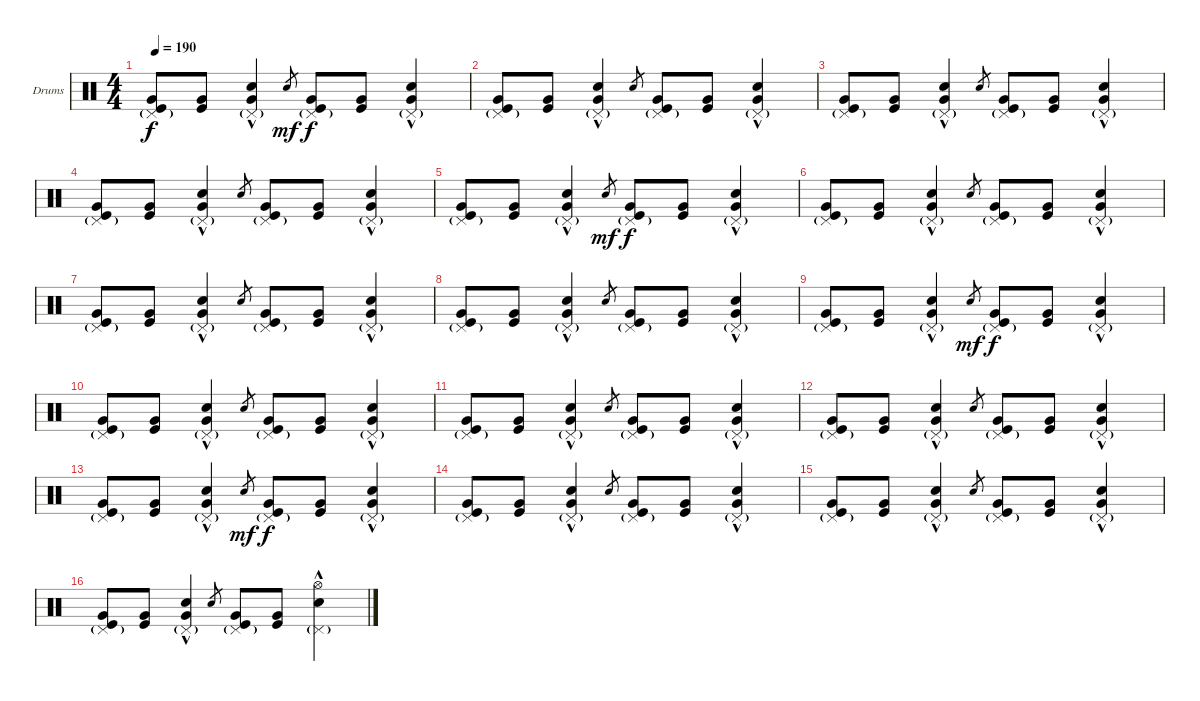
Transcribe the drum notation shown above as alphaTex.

\bracketExtendMode groupsimilarinstruments
\firstSystemTrackNameOrientation horizontal
\otherSystemsTrackNameOrientation horizontal
\track ("Drumkit" "Drums") {instrument percussion}
\staff {score}
\articulation defaults
\ts (4 4)
\tempo 190
\clef neutral
\scale
0.333333
\ks c
("Kick (hit)" "Very Low Tom (hit)" "Pedal Hi-Hat (hit)"{g}).8{dy f} ("Kick (hit)" "Very Low Tom (hit)").8 ("Snare (hit) 2"{hac} "Very Low Tom (hit)" "Pedal Hi-Hat (hit)"{g}).4 "Snare (hit) 2".8{gr dy mf} ("Kick (hit)" "Very Low Tom (hit)" "Pedal Hi-Hat (hit)"{g}).8{dy f} ("Kick (hit)" "Very Low Tom (hit)").8 ("Snare (hit) 2"{hac} "Very Low Tom (hit)" "Pedal Hi-Hat (hit)"{g}).4 |
\scale
0.333333 ("Kick (hit)" "Very Low Tom (hit)" "Pedal Hi-Hat (hit)"{g}).8 ("Kick (hit)" "Very Low Tom (hit)").8 ("Snare (hit) 2"{hac} "Very Low Tom (hit)" "Pedal Hi-Hat (hit)"{g}).4 "Snare (hit) 2".8{gr} ("Kick (hit)" "Very Low Tom (hit)" "Pedal Hi-Hat (hit)"{g}).8 ("Kick (hit)" "Very Low Tom (hit)").8 ("Snare (hit) 2"{hac} "Very Low Tom (hit)" "Pedal Hi-Hat (hit)"{g}).4 |
\scale
0.333333 ("Kick (hit)" "Very Low Tom (hit)" "Pedal Hi-Hat (hit)"{g}).8 ("Kick (hit)" "Very Low Tom (hit)").8 ("Snare (hit) 2"{hac} "Very Low Tom (hit)" "Pedal Hi-Hat (hit)"{g}).4 "Snare (hit) 2".8{gr} ("Kick (hit)" "Very Low Tom (hit)" "Pedal Hi-Hat (hit)"{g}).8 ("Kick (hit)" "Very Low Tom (hit)").8 ("Snare (hit) 2"{hac} "Very Low Tom (hit)" "Pedal Hi-Hat (hit)"{g}).4 |
\scale
0.333333 ("Kick (hit)" "Very Low Tom (hit)" "Pedal Hi-Hat (hit)"{g}).8 ("Kick (hit)" "Very Low Tom (hit)").8 ("Snare (hit) 2"{hac} "Very Low Tom (hit)" "Pedal Hi-Hat (hit)"{g}).4 "Snare (hit) 2".8{gr} ("Kick (hit)" "Very Low Tom (hit)" "Pedal Hi-Hat (hit)"{g}).8 ("Kick (hit)" "Very Low Tom (hit)").8 ("Snare (hit) 2"{hac} "Very Low Tom (hit)" "Pedal Hi-Hat (hit)"{g}).4 |
\scale
0.333333 ("Kick (hit)" "Very Low Tom (hit)" "Pedal Hi-Hat (hit)"{g}).8 ("Kick (hit)" "Very Low Tom (hit)").8 ("Snare (hit) 2"{hac} "Very Low Tom (hit)" "Pedal Hi-Hat (hit)"{g}).4 "Snare (hit) 2".8{gr dy mf} ("Kick (hit)" "Very Low Tom (hit)" "Pedal Hi-Hat (hit)"{g}).8{dy f} ("Kick (hit)" "Very Low Tom (hit)").8 ("Snare (hit) 2"{hac} "Very Low Tom (hit)" "Pedal Hi-Hat (hit)"{g}).4 |
\scale
0.333333 ("Kick (hit)" "Very Low Tom (hit)" "Pedal Hi-Hat (hit)"{g}).8 ("Kick (hit)" "Very Low Tom (hit)").8 ("Snare (hit) 2"{hac} "Very Low Tom (hit)" "Pedal Hi-Hat (hit)"{g}).4 "Snare (hit) 2".8{gr} ("Kick (hit)" "Very Low Tom (hit)" "Pedal Hi-Hat (hit)"{g}).8 ("Kick (hit)" "Very Low Tom (hit)").8 ("Snare (hit) 2"{hac} "Very Low Tom (hit)" "Pedal Hi-Hat (hit)"{g}).4 |
\scale
0.333333 ("Kick (hit)" "Very Low Tom (hit)" "Pedal Hi-Hat (hit)"{g}).8 ("Kick (hit)" "Very Low Tom (hit)").8 ("Snare (hit) 2"{hac} "Very Low Tom (hit)" "Pedal Hi-Hat (hit)"{g}).4 "Snare (hit) 2".8{gr} ("Kick (hit)" "Very Low Tom (hit)" "Pedal Hi-Hat (hit)"{g}).8 ("Kick (hit)" "Very Low Tom (hit)").8 ("Snare (hit) 2"{hac} "Very Low Tom (hit)" "Pedal Hi-Hat (hit)"{g}).4 |
\scale
0.333333 ("Kick (hit)" "Very Low Tom (hit)" "Pedal Hi-Hat (hit)"{g}).8 ("Kick (hit)" "Very Low Tom (hit)").8 ("Snare (hit) 2"{hac} "Very Low Tom (hit)" "Pedal Hi-Hat (hit)"{g}).4 "Snare (hit) 2".8{gr} ("Kick (hit)" "Very Low Tom (hit)" "Pedal Hi-Hat (hit)"{g}).8 ("Kick (hit)" "Very Low Tom (hit)").8 ("Snare (hit) 2"{hac} "Very Low Tom (hit)" "Pedal Hi-Hat (hit)"{g}).4 |
\scale
0.333333 ("Kick (hit)" "Very Low Tom (hit)" "Pedal Hi-Hat (hit)"{g}).8 ("Kick (hit)" "Very Low Tom (hit)").8 ("Snare (hit) 2"{hac} "Very Low Tom (hit)" "Pedal Hi-Hat (hit)"{g}).4 "Snare (hit) 2".8{gr dy mf} ("Kick (hit)" "Very Low Tom (hit)" "Pedal Hi-Hat (hit)"{g}).8{dy f} ("Kick (hit)" "Very Low Tom (hit)").8 ("Snare (hit) 2"{hac} "Very Low Tom (hit)" "Pedal Hi-Hat (hit)"{g}).4 |
\scale
0.333333 ("Kick (hit)" "Very Low Tom (hit)" "Pedal Hi-Hat (hit)"{g}).8 ("Kick (hit)" "Very Low Tom (hit)").8 ("Snare (hit) 2"{hac} "Very Low Tom (hit)" "Pedal Hi-Hat (hit)"{g}).4 "Snare (hit) 2".8{gr} ("Kick (hit)" "Very Low Tom (hit)" "Pedal Hi-Hat (hit)"{g}).8 ("Kick (hit)" "Very Low Tom (hit)").8 ("Snare (hit) 2"{hac} "Very Low Tom (hit)" "Pedal Hi-Hat (hit)"{g}).4 |
\scale
0.333333 ("Kick (hit)" "Very Low Tom (hit)" "Pedal Hi-Hat (hit)"{g}).8 ("Kick (hit)" "Very Low Tom (hit)").8 ("Snare (hit) 2"{hac} "Very Low Tom (hit)" "Pedal Hi-Hat (hit)"{g}).4 "Snare (hit) 2".8{gr} ("Kick (hit)" "Very Low Tom (hit)" "Pedal Hi-Hat (hit)"{g}).8 ("Kick (hit)" "Very Low Tom (hit)").8 ("Snare (hit) 2"{hac} "Very Low Tom (hit)" "Pedal Hi-Hat (hit)"{g}).4 |
\scale
0.333333 ("Kick (hit)" "Very Low Tom (hit)" "Pedal Hi-Hat (hit)"{g}).8 ("Kick (hit)" "Very Low Tom (hit)").8 ("Snare (hit) 2"{hac} "Very Low Tom (hit)" "Pedal Hi-Hat (hit)"{g}).4 "Snare (hit) 2".8{gr} ("Kick (hit)" "Very Low Tom (hit)" "Pedal Hi-Hat (hit)"{g}).8 ("Kick (hit)" "Very Low Tom (hit)").8 ("Snare (hit) 2"{hac} "Very Low Tom (hit)" "Pedal Hi-Hat (hit)"{g}).4 |
\scale
0.333333 ("Kick (hit)" "Very Low Tom (hit)" "Pedal Hi-Hat (hit)"{g}).8 ("Kick (hit)" "Very Low Tom (hit)").8 ("Snare (hit) 2"{hac} "Very Low Tom (hit)" "Pedal Hi-Hat (hit)"{g}).4 "Snare (hit) 2".8{gr dy mf} ("Kick (hit)" "Very Low Tom (hit)" "Pedal Hi-Hat (hit)"{g}).8{dy f} ("Kick (hit)" "Very Low Tom (hit)").8 ("Snare (hit) 2"{hac} "Very Low Tom (hit)" "Pedal Hi-Hat (hit)"{g}).4 |
\scale
0.333333 ("Kick (hit)" "Very Low Tom (hit)" "Pedal Hi-Hat (hit)"{g}).8 ("Kick (hit)" "Very Low Tom (hit)").8 ("Snare (hit) 2"{hac} "Very Low Tom (hit)" "Pedal Hi-Hat (hit)"{g}).4 "Snare (hit) 2".8{gr} ("Kick (hit)" "Very Low Tom (hit)" "Pedal Hi-Hat (hit)"{g}).8 ("Kick (hit)" "Very Low Tom (hit)").8 ("Snare (hit) 2"{hac} "Very Low Tom (hit)" "Pedal Hi-Hat (hit)"{g}).4 |
\scale
0.333333 ("Kick (hit)" "Very Low Tom (hit)" "Pedal Hi-Hat (hit)"{g}).8 ("Kick (hit)" "Very Low Tom (hit)").8 ("Snare (hit) 2"{hac} "Very Low Tom (hit)" "Pedal Hi-Hat (hit)"{g}).4 "Snare (hit) 2".8{gr} ("Kick (hit)" "Very Low Tom (hit)" "Pedal Hi-Hat (hit)"{g}).8 ("Kick (hit)" "Very Low Tom (hit)").8 ("Snare (hit) 2"{hac} "Very Low Tom (hit)" "Pedal Hi-Hat (hit)"{g}).4 |
\scale
0.333333 ("Kick (hit)" "Very Low Tom (hit)" "Pedal Hi-Hat (hit)"{g}).8 ("Kick (hit)" "Very Low Tom (hit)").8 ("Snare (hit) 2"{hac} "Very Low Tom (hit)" "Pedal Hi-Hat (hit)"{g}).4 "Snare (hit) 2".8{gr} ("Kick (hit)" "Very Low Tom (hit)" "Pedal Hi-Hat (hit)"{g}).8 ("Kick (hit)" "Very Low Tom (hit)").8 ("Snare (hit) 2"{hac} "Pedal Hi-Hat (hit)"{g} "Hi-Hat (open)").4
